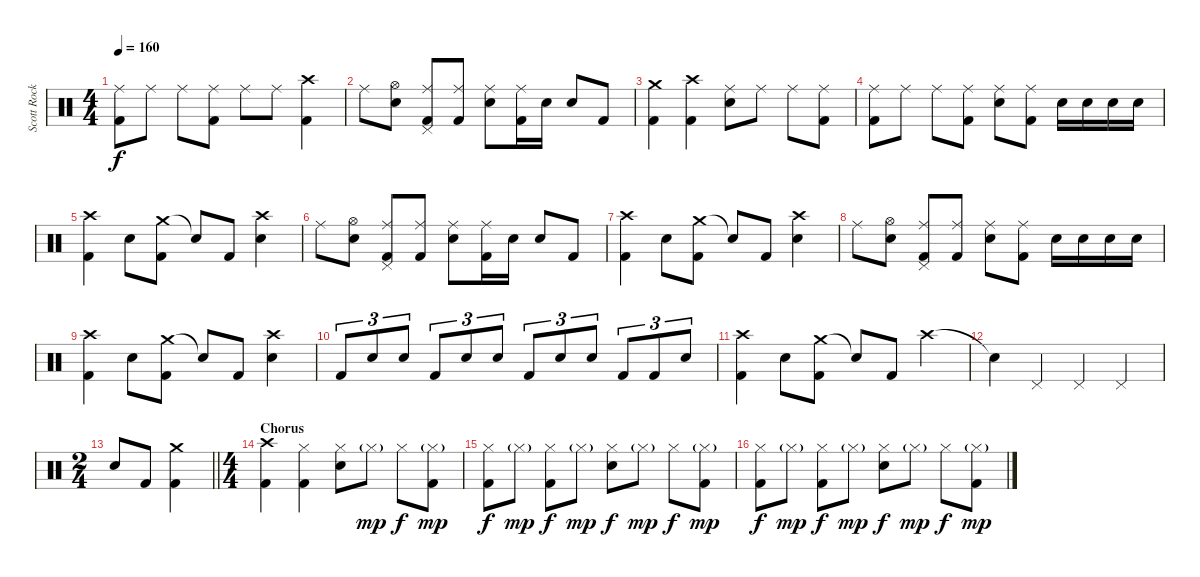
\track ("Scott Rockenfield" "Scott Rock") {instrument percussion}
\staff {score}
\articulation defaults
\ts (4 4)
\tempo 160
\clef neutral
\ks c
("Ride (middle)" "Kick (hit) 2").8{dy f} "Ride (middle)".8 "Ride (middle)".8 ("Ride (middle)" "Kick (hit) 2").8 "Ride (middle)".8 "Ride (middle)".8 ("Crash high (hit)" "Kick (hit) 2").4 |
"Ride (middle)".8 ("Hi-Hat (open)" "Electric Snare (hit)").8 ("Pedal Hi-Hat (hit)" "Ride (middle)" "Kick (hit) 2").8 ("Ride (middle)" "Kick (hit) 2").8 ("Ride (middle)" "Electric Snare (hit)").8 ("Ride (middle)" "Kick (hit) 2").16 "Electric Snare (hit)".16 "Electric Snare (hit)".8 "Kick (hit) 2".8 |
("Crash medium (hit)" "Kick (hit) 2").4 ("Crash high (hit)" "Kick (hit) 2").4 ("Ride (middle)" "Electric Snare (hit)").8 "Ride (middle)".8 "Ride (middle)".8 ("Ride (middle)" "Kick (hit) 2").8 |
("Ride (middle)" "Kick (hit) 2").8 "Ride (middle)".8 "Ride (middle)".8 ("Ride (middle)" "Kick (hit) 2").8 ("Ride (middle)" "Electric Snare (hit)").8 ("Ride (middle)" "Kick (hit) 2").8 "Electric Snare (hit)".16 "Electric Snare (hit)".16 "Electric Snare (hit)".16 "Electric Snare (hit)".16 |
("Crash high (hit)" "Kick (hit) 2").4 "Electric Snare (hit)".8 ("Crash medium (hit)" "Kick (hit) 2").8 "Snare (hit)"{t}.8 "Kick (hit) 2".8 ("Crash high (hit)" "Electric Snare (hit)").4 |
"Ride (middle)".8 ("Hi-Hat (open)" "Electric Snare (hit)").8 ("Pedal Hi-Hat (hit)" "Ride (middle)" "Kick (hit) 2").8 ("Ride (middle)" "Kick (hit) 2").8 ("Ride (middle)" "Electric Snare (hit)").8 ("Ride (middle)" "Kick (hit) 2").16 "Electric Snare (hit)".16 "Electric Snare (hit)".8 "Kick (hit) 2".8 |
("Crash high (hit)" "Kick (hit) 2").4 "Electric Snare (hit)".8 ("Crash medium (hit)" "Kick (hit) 2").8 "Snare (hit)"{t}.8 "Kick (hit) 2".8 ("Crash high (hit)" "Electric Snare (hit)").4 |
"Ride (middle)".8 ("Hi-Hat (open)" "Electric Snare (hit)").8 ("Pedal Hi-Hat (hit)" "Ride (middle)" "Kick (hit) 2").8 ("Ride (middle)" "Kick (hit) 2").8 ("Ride (middle)" "Electric Snare (hit)").8 ("Ride (middle)" "Kick (hit) 2").8 "Electric Snare (hit)".16 "Electric Snare (hit)".16 "Electric Snare (hit)".16 "Electric Snare (hit)".16 |
("Crash high (hit)" "Kick (hit) 2").4 "Electric Snare (hit)".8 ("Crash medium (hit)" "Kick (hit) 2").8 "Snare (hit)"{t}.8 "Kick (hit) 2".8 ("Crash high (hit)" "Electric Snare (hit)").4 |
"Kick (hit) 2".8{tu (3 2)} "Electric Snare (hit)".8{tu (3 2)} "Electric Snare (hit)".8{tu (3 2)} "Kick (hit) 2".8{tu (3 2)} "Electric Snare (hit)".8{tu (3 2)} "Electric Snare (hit)".8{tu (3 2)} "Kick (hit) 2".8{tu (3 2)} "Electric Snare (hit)".8{tu (3 2)} "Electric Snare (hit)".8{tu (3 2)} "Kick (hit) 2".8{tu (3 2)} "Kick (hit) 2".8{tu (3 2)} "Electric Snare (hit)".8{tu (3 2)} |
("Crash high (hit)" "Kick (hit) 2").4 "Electric Snare (hit)".8 ("Crash medium (hit)" "Kick (hit) 2").8 "Snare (hit)"{t}.8 "Kick (hit) 2".8 "Crash high (hit)".4 |
"Snare (hit)"{t}.4 "Pedal Hi-Hat (hit)".4 "Pedal Hi-Hat (hit)".4 "Pedal Hi-Hat (hit)".4 |
\ts (2 4)
\barLineRight lightlight "Electric Snare (hit)".8 "Kick (hit) 2".8
("Crash medium (hit)" "Kick (hit) 2").4 |
\ts (4 4)
\section ("" "Chorus")
("Crash high (hit)" "Kick (hit) 2").4 ("Hi-Hat (closed)" "Kick (hit) 2").4 ("Hi-Hat (closed)" "Electric Snare (hit)").8 "Hi-Hat (closed)"{g}.8{dy mp} "Hi-Hat (closed)".8{dy f} ("Hi-Hat (closed)"{g} "Kick (hit) 2").8{dy mp} |
("Hi-Hat (closed)" "Kick (hit) 2").8{dy f} "Hi-Hat (closed)"{g}.8{dy mp} ("Hi-Hat (closed)" "Kick (hit) 2").8{dy f} "Hi-Hat (closed)"{g}.8{dy mp} ("Hi-Hat (closed)" "Electric Snare (hit)").8{dy f} "Hi-Hat (closed)"{g}.8{dy mp} "Hi-Hat (closed)".8{dy f} ("Hi-Hat (closed)"{g} "Kick (hit) 2").8{dy mp} |
("Hi-Hat (closed)" "Kick (hit) 2").8{dy f} "Hi-Hat (closed)"{g}.8{dy mp} ("Hi-Hat (closed)" "Kick (hit) 2").8{dy f} "Hi-Hat (closed)"{g}.8{dy mp} ("Hi-Hat (closed)" "Electric Snare (hit)").8{dy f} "Hi-Hat (closed)"{g}.8{dy mp} "Hi-Hat (closed)".8{dy f} ("Hi-Hat (closed)"{g} "Kick (hit) 2").8{dy mp}
